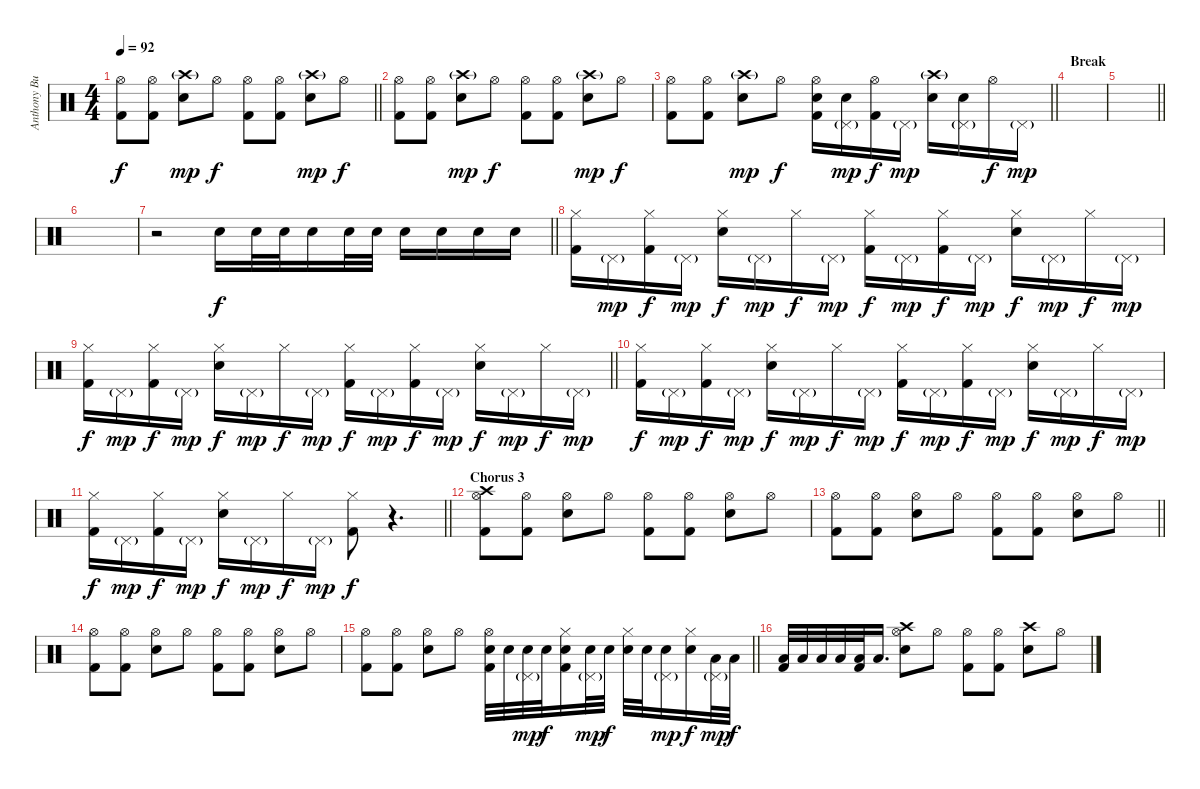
\track ("Anthony Burulcich" "Anthony Bu") {instrument percussion}
\staff {score}
\articulation defaults
\ts (4 4)
\tempo 92
\clef neutral
\barLineRight lightlight
\ks c
("Hi-Hat (open)" "Kick (hit) 2").8{dy f} ("Hi-Hat (open)" "Kick (hit) 2").8 ("Snare (hit) 2" "Crash high (hit)"{g}).8{dy mp} "Hi-Hat (open)".8{dy f} ("Hi-Hat (open)" "Kick (hit) 2").8 ("Hi-Hat (open)" "Kick (hit) 2").8 ("Snare (hit) 2" "Crash high (hit)"{g}).8{dy mp} "Hi-Hat (open)".8{dy f} |
("Hi-Hat (open)" "Kick (hit) 2").8 ("Hi-Hat (open)" "Kick (hit) 2").8 ("Snare (hit) 2" "Crash high (hit)"{g}).8{dy mp} "Hi-Hat (open)".8{dy f} ("Hi-Hat (open)" "Kick (hit) 2").8 ("Hi-Hat (open)" "Kick (hit) 2").8 ("Snare (hit) 2" "Crash high (hit)"{g}).8{dy mp} "Hi-Hat (open)".8{dy f} |
\barLineRight lightlight
("Hi-Hat (open)" "Kick (hit) 2").8 ("Hi-Hat (open)" "Kick (hit) 2").8 ("Snare (hit) 2" "Crash high (hit)"{g}).8{dy mp} "Hi-Hat (open)".8{dy f} ("Hi-Hat (open)" "Snare (hit) 2" "Kick (hit) 2").16 ("Pedal Hi-Hat (hit)"{g} "Snare (hit) 2").16{dy mp} ("Hi-Hat (open)" "Kick (hit) 2").16{dy f} "Pedal Hi-Hat (hit)"{g}.16{dy mp} ("Snare (hit) 2" "Crash high (hit)"{g}).16 ("Pedal Hi-Hat (hit)"{g} "Snare (hit) 2").16 "Hi-Hat (open)".16{dy f} "Pedal Hi-Hat (hit)"{g}.16{dy mp} |
\section ("" "Break")
|
\barLineRight lightlight
|
|
\barLineRight lightlight
r.2 "Snare (hit) 2".16{dy f} "Snare (hit) 2".32 "Snare (hit) 2".32 "Snare (hit) 2".16 "Snare (hit) 2".32 "Snare (hit) 2".32 "Snare (hit) 2".16 "Snare (hit) 2".16 "Snare (hit) 2".16 "Snare (hit) 2".16 |
("Hi-Hat (closed)" "Kick (hit) 2").16 "Pedal Hi-Hat (hit)"{g}.16{dy mp} ("Hi-Hat (closed)" "Kick (hit) 2").16{dy f} "Pedal Hi-Hat (hit)"{g}.16{dy mp} ("Hi-Hat (closed)" "Snare (hit) 2").16{dy f} "Pedal Hi-Hat (hit)"{g}.16{dy mp} "Hi-Hat (closed)".16{dy f} "Pedal Hi-Hat (hit)"{g}.16{dy mp} ("Hi-Hat (closed)" "Kick (hit) 2").16{dy f} "Pedal Hi-Hat (hit)"{g}.16{dy mp} ("Hi-Hat (closed)" "Kick (hit) 2").16{dy f} "Pedal Hi-Hat (hit)"{g}.16{dy mp} ("Hi-Hat (closed)" "Snare (hit) 2").16{dy f} "Pedal Hi-Hat (hit)"{g}.16{dy mp} "Hi-Hat (closed)".16{dy f} "Pedal Hi-Hat (hit)"{g}.16{dy mp} |
\barLineRight lightlight
("Hi-Hat (closed)" "Kick (hit) 2").16{dy f} "Pedal Hi-Hat (hit)"{g}.16{dy mp} ("Hi-Hat (closed)" "Kick (hit) 2").16{dy f} "Pedal Hi-Hat (hit)"{g}.16{dy mp} ("Hi-Hat (closed)" "Snare (hit) 2").16{dy f} "Pedal Hi-Hat (hit)"{g}.16{dy mp} "Hi-Hat (closed)".16{dy f} "Pedal Hi-Hat (hit)"{g}.16{dy mp} ("Hi-Hat (closed)" "Kick (hit) 2").16{dy f} "Pedal Hi-Hat (hit)"{g}.16{dy mp} ("Hi-Hat (closed)" "Kick (hit) 2").16{dy f} "Pedal Hi-Hat (hit)"{g}.16{dy mp} ("Hi-Hat (closed)" "Snare (hit) 2").16{dy f} "Pedal Hi-Hat (hit)"{g}.16{dy mp} "Hi-Hat (closed)".16{dy f} "Pedal Hi-Hat (hit)"{g}.16{dy mp} |
("Hi-Hat (closed)" "Kick (hit) 2").16{dy f} "Pedal Hi-Hat (hit)"{g}.16{dy mp} ("Hi-Hat (closed)" "Kick (hit) 2").16{dy f} "Pedal Hi-Hat (hit)"{g}.16{dy mp} ("Hi-Hat (closed)" "Snare (hit) 2").16{dy f} "Pedal Hi-Hat (hit)"{g}.16{dy mp} "Hi-Hat (closed)".16{dy f} "Pedal Hi-Hat (hit)"{g}.16{dy mp} ("Hi-Hat (closed)" "Kick (hit) 2").16{dy f} "Pedal Hi-Hat (hit)"{g}.16{dy mp} ("Hi-Hat (closed)" "Kick (hit) 2").16{dy f} "Pedal Hi-Hat (hit)"{g}.16{dy mp} ("Hi-Hat (closed)" "Snare (hit) 2").16{dy f} "Pedal Hi-Hat (hit)"{g}.16{dy mp} "Hi-Hat (closed)".16{dy f} "Pedal Hi-Hat (hit)"{g}.16{dy mp} |
\barLineRight lightlight
("Hi-Hat (closed)" "Kick (hit) 2").16{dy f} "Pedal Hi-Hat (hit)"{g}.16{dy mp} ("Hi-Hat (closed)" "Kick (hit) 2").16{dy f} "Pedal Hi-Hat (hit)"{g}.16{dy mp} ("Hi-Hat (closed)" "Snare (hit) 2").16{dy f} "Pedal Hi-Hat (hit)"{g}.16{dy mp} "Hi-Hat (closed)".16{dy f} "Pedal Hi-Hat (hit)"{g}.16{dy mp} ("Hi-Hat (closed)" "Kick (hit) 2").8{dy f} r.4{d} |
\section ("" "Chorus 3")
("Hi-Hat (open)" "Crash high (hit)" "Kick (hit) 2").8 ("Hi-Hat (open)" "Kick (hit) 2").8 ("Hi-Hat (open)" "Snare (hit) 2").8 "Hi-Hat (open)".8 ("Hi-Hat (open)" "Kick (hit) 2").8 ("Hi-Hat (open)" "Kick (hit) 2").8 ("Hi-Hat (open)" "Snare (hit) 2").8 "Hi-Hat (open)".8 |
\barLineRight lightlight
("Hi-Hat (open)" "Kick (hit) 2").8 ("Hi-Hat (open)" "Kick (hit) 2").8 ("Hi-Hat (open)" "Snare (hit) 2").8 "Hi-Hat (open)".8 ("Hi-Hat (open)" "Kick (hit) 2").8 ("Hi-Hat (open)" "Kick (hit) 2").8 ("Hi-Hat (open)" "Snare (hit) 2").8 "Hi-Hat (open)".8 |
("Hi-Hat (open)" "Kick (hit) 2").8 ("Hi-Hat (open)" "Kick (hit) 2").8 ("Hi-Hat (open)" "Snare (hit) 2").8 "Hi-Hat (open)".8 ("Hi-Hat (open)" "Kick (hit) 2").8 ("Hi-Hat (open)" "Kick (hit) 2").8 ("Hi-Hat (open)" "Snare (hit) 2").8 "Hi-Hat (open)".8 |
\barLineRight lightlight
("Hi-Hat (open)" "Kick (hit) 2").8 ("Hi-Hat (open)" "Kick (hit) 2").8 ("Hi-Hat (open)" "Snare (hit) 2").8 "Hi-Hat (open)".8 ("Hi-Hat (open)" "Snare (hit) 2" "Kick (hit) 2").32 "Snare (hit) 2".32 ("Pedal Hi-Hat (hit)"{g} "Snare (hit) 2").32{dy mp} "Snare (hit) 2".32{dy f} ("Hi-Hat (closed)" "Snare (hit) 2" "Kick (hit) 2").16 ("Pedal Hi-Hat (hit)"{g} "Snare (hit) 2").32{dy mp} "Snare (hit) 2".32{dy f} ("Hi-Hat (closed)" "Snare (hit) 2").32 "Snare (hit) 2".32 ("Pedal Hi-Hat (hit)"{g} "Snare (hit) 2").16{dy mp} ("Hi-Hat (closed)" "Snare (hit) 2").16{dy f} ("Pedal Hi-Hat (hit)"{g} "Low Tom (hit)").32{dy mp} "Low Tom (hit)".32{dy f} |
("Low Tom (hit)" "Kick (hit) 2").32 "Low Tom (hit)".32 "Low Floor Tom (hit)".32 "Low Floor Tom (hit)".32 ("Low Floor Tom (hit)" "Kick (hit) 2").32 "Low Floor Tom (hit)".16{d} ("Hi-Hat (open)" "Snare (hit) 2" "Crash high (hit)").8 "Hi-Hat (open)".8 ("Hi-Hat (open)" "Kick (hit) 2").8 ("Hi-Hat (open)" "Kick (hit) 2").8 ("Snare (hit) 2" "Crash high (hit)").8 "Hi-Hat (open)".8
